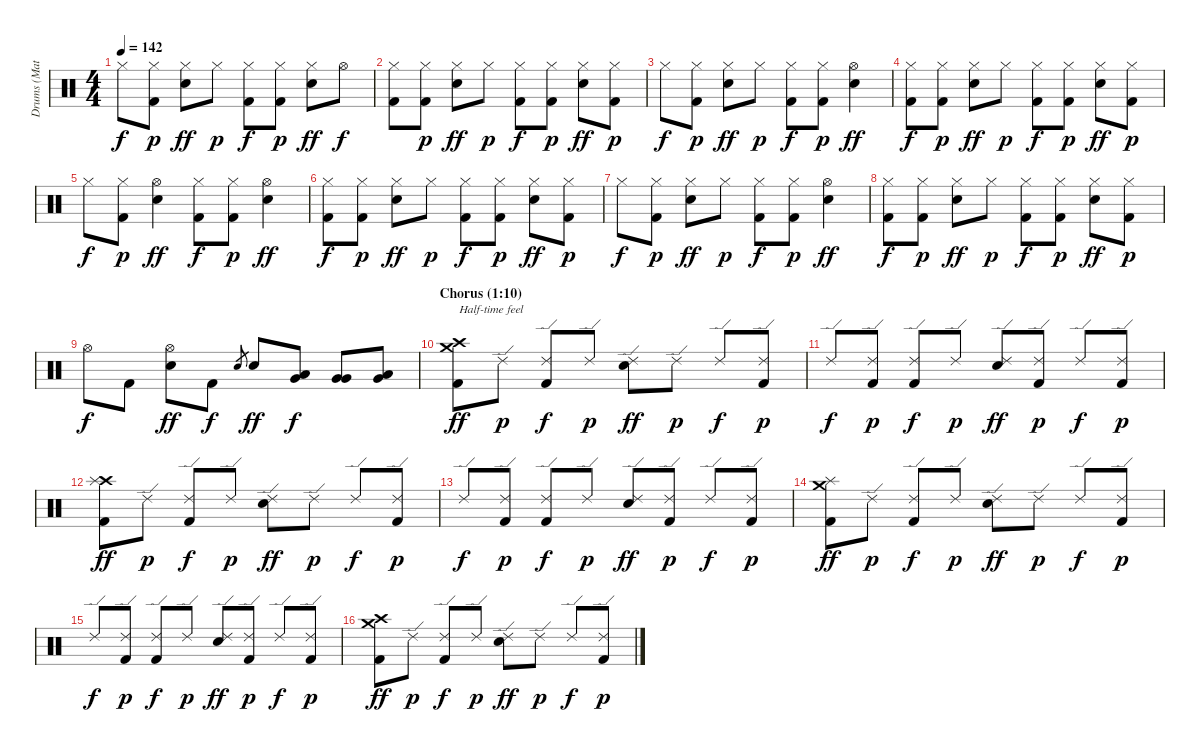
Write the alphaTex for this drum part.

\track ("Drums (Matt Sorum)" "Drums (Mat") {instrument percussion}
\staff {score}
\articulation defaults
\ts (4 4)
\tempo 142
\clef neutral
\ks c "Hi-Hat (closed)".8{dy f}
("Hi-Hat (closed)" "Kick (hit) 2").8{dy p} ("Hi-Hat (closed)" "Snare (hit) 2").8{dy ff} "Hi-Hat (closed)".8{dy p} ("Hi-Hat (closed)" "Kick (hit) 2").8{dy f} ("Hi-Hat (closed)" "Kick (hit) 2").8{dy p} ("Hi-Hat (closed)" "Snare (hit) 2").8{dy ff} "Hi-Hat (open)".8{dy f} |
("Hi-Hat (closed)" "Kick (hit) 2").8 ("Hi-Hat (closed)" "Kick (hit) 2").8{dy p} ("Hi-Hat (closed)" "Snare (hit) 2").8{dy ff} "Hi-Hat (closed)".8{dy p} ("Hi-Hat (closed)" "Kick (hit) 2").8{dy f} ("Hi-Hat (closed)" "Kick (hit) 2").8{dy p} ("Hi-Hat (closed)" "Snare (hit) 2").8{dy ff} ("Hi-Hat (closed)" "Kick (hit) 2").8{dy p} |
"Hi-Hat (closed)".8{dy f} ("Hi-Hat (closed)" "Kick (hit) 2").8{dy p} ("Hi-Hat (closed)" "Snare (hit) 2").8{dy ff} "Hi-Hat (closed)".8{dy p} ("Hi-Hat (closed)" "Kick (hit) 2").8{dy f} ("Hi-Hat (closed)" "Kick (hit) 2").8{dy p} ("Hi-Hat (open)" "Snare (hit) 2").4{dy ff} |
("Hi-Hat (closed)" "Kick (hit) 2").8{dy f} ("Hi-Hat (closed)" "Kick (hit) 2").8{dy p} ("Hi-Hat (closed)" "Snare (hit) 2").8{dy ff} "Hi-Hat (closed)".8{dy p} ("Hi-Hat (closed)" "Kick (hit) 2").8{dy f} ("Hi-Hat (closed)" "Kick (hit) 2").8{dy p} ("Hi-Hat (closed)" "Snare (hit) 2").8{dy ff} ("Hi-Hat (closed)" "Kick (hit) 2").8{dy p} |
"Hi-Hat (closed)".8{dy f} ("Hi-Hat (closed)" "Kick (hit) 2").8{dy p} ("Hi-Hat (open)" "Snare (hit) 2").4{dy ff} ("Hi-Hat (closed)" "Kick (hit) 2").8{dy f} ("Hi-Hat (closed)" "Kick (hit) 2").8{dy p} ("Hi-Hat (open)" "Snare (hit) 2").4{dy ff} |
("Hi-Hat (closed)" "Kick (hit) 2").8{dy f} ("Hi-Hat (closed)" "Kick (hit) 2").8{dy p} ("Hi-Hat (closed)" "Snare (hit) 2").8{dy ff} "Hi-Hat (closed)".8{dy p} ("Hi-Hat (closed)" "Kick (hit) 2").8{dy f} ("Hi-Hat (closed)" "Kick (hit) 2").8{dy p} ("Hi-Hat (closed)" "Snare (hit) 2").8{dy ff} ("Hi-Hat (closed)" "Kick (hit) 2").8{dy p} |
"Hi-Hat (closed)".8{dy f} ("Hi-Hat (closed)" "Kick (hit) 2").8{dy p} ("Hi-Hat (closed)" "Snare (hit) 2").8{dy ff} "Hi-Hat (closed)".8{dy p} ("Hi-Hat (closed)" "Kick (hit) 2").8{dy f} ("Hi-Hat (closed)" "Kick (hit) 2").8{dy p} ("Hi-Hat (open)" "Snare (hit) 2").4{dy ff} |
("Hi-Hat (closed)" "Kick (hit) 2").8{dy f} ("Hi-Hat (closed)" "Kick (hit) 2").8{dy p} ("Hi-Hat (closed)" "Snare (hit) 2").8{dy ff} "Hi-Hat (closed)".8{dy p} ("Hi-Hat (closed)" "Kick (hit) 2").8{dy f} ("Hi-Hat (closed)" "Kick (hit) 2").8{dy p} ("Hi-Hat (closed)" "Snare (hit) 2").8{dy ff} ("Hi-Hat (closed)" "Kick (hit) 2").8{dy p} |
"Hi-Hat (open)".8{dy f} "Kick (hit) 2".8 ("Hi-Hat (open)" "Snare (hit) 2").8{dy ff} "Kick (hit) 2".8{dy f} "Snare (hit) 2".8{gr} "Snare (hit) 2".8{dy ff} ("Low Tom (hit)" "Very Low Tom (hit)").8{dy f} ("Very Low Tom (hit)" "Very Low Tom (hit)").8 ("Low Floor Tom (hit)" "Very Low Tom (hit)").8 |
\section ("" "Chorus (1:10)")
("Crash high (hit)" "Crash medium (hit)" "Kick (hit) 2").8{txt "Half-time feel" dy ff} "Ride (edge) 2".8{dy p} ("Ride (edge) 2" "Kick (hit) 2").8{dy f} "Ride (edge) 2".8{dy p} ("Ride (edge) 2" "Snare (hit) 2").8{dy ff} "Ride (edge) 2".8{dy p} "Ride (edge) 2".8{dy f} ("Ride (edge) 2" "Kick (hit) 2").8{dy p} |
"Ride (edge) 2".8{dy f} ("Ride (edge) 2" "Kick (hit) 2").8{dy p} ("Ride (edge) 2" "Kick (hit) 2").8{dy f} "Ride (edge) 2".8{dy p} ("Ride (edge) 2" "Snare (hit) 2").8{dy ff} ("Ride (edge) 2" "Kick (hit) 2").8{dy p} "Ride (edge) 2".8{dy f} ("Ride (edge) 2" "Kick (hit) 2").8{dy p} |
("Crash high (hit)" "Splash (hit)" "Kick (hit) 2").8{dy ff} "Ride (edge) 2".8{dy p} ("Ride (edge) 2" "Kick (hit) 2").8{dy f} "Ride (edge) 2".8{dy p} ("Ride (edge) 2" "Snare (hit) 2").8{dy ff} "Ride (edge) 2".8{dy p} "Ride (edge) 2".8{dy f} ("Ride (edge) 2" "Kick (hit) 2").8{dy p} |
"Ride (edge) 2".8{dy f} ("Ride (edge) 2" "Kick (hit) 2").8{dy p} ("Ride (edge) 2" "Kick (hit) 2").8{dy f} "Ride (edge) 2".8{dy p} ("Ride (edge) 2" "Snare (hit) 2").8{dy ff} ("Ride (edge) 2" "Kick (hit) 2").8{dy p} "Ride (edge) 2".8{dy f} ("Ride (edge) 2" "Kick (hit) 2").8{dy p} |
("Crash medium (hit)" "Splash (hit)" "Kick (hit) 2").8{dy ff} "Ride (edge) 2".8{dy p} ("Ride (edge) 2" "Kick (hit) 2").8{dy f} "Ride (edge) 2".8{dy p} ("Ride (edge) 2" "Snare (hit) 2").8{dy ff} "Ride (edge) 2".8{dy p} "Ride (edge) 2".8{dy f} ("Ride (edge) 2" "Kick (hit) 2").8{dy p} |
"Ride (edge) 2".8{dy f} ("Ride (edge) 2" "Kick (hit) 2").8{dy p} ("Ride (edge) 2" "Kick (hit) 2").8{dy f} "Ride (edge) 2".8{dy p} ("Ride (edge) 2" "Snare (hit) 2").8{dy ff} ("Ride (edge) 2" "Kick (hit) 2").8{dy p} "Ride (edge) 2".8{dy f} ("Ride (edge) 2" "Kick (hit) 2").8{dy p} |
("Crash high (hit)" "Crash medium (hit)" "Kick (hit) 2").8{dy ff} "Ride (edge) 2".8{dy p} ("Ride (edge) 2" "Kick (hit) 2").8{dy f} "Ride (edge) 2".8{dy p} ("Ride (edge) 2" "Snare (hit) 2").8{dy ff} "Ride (edge) 2".8{dy p} "Ride (edge) 2".8{dy f} ("Ride (edge) 2" "Kick (hit) 2").8{dy p}
